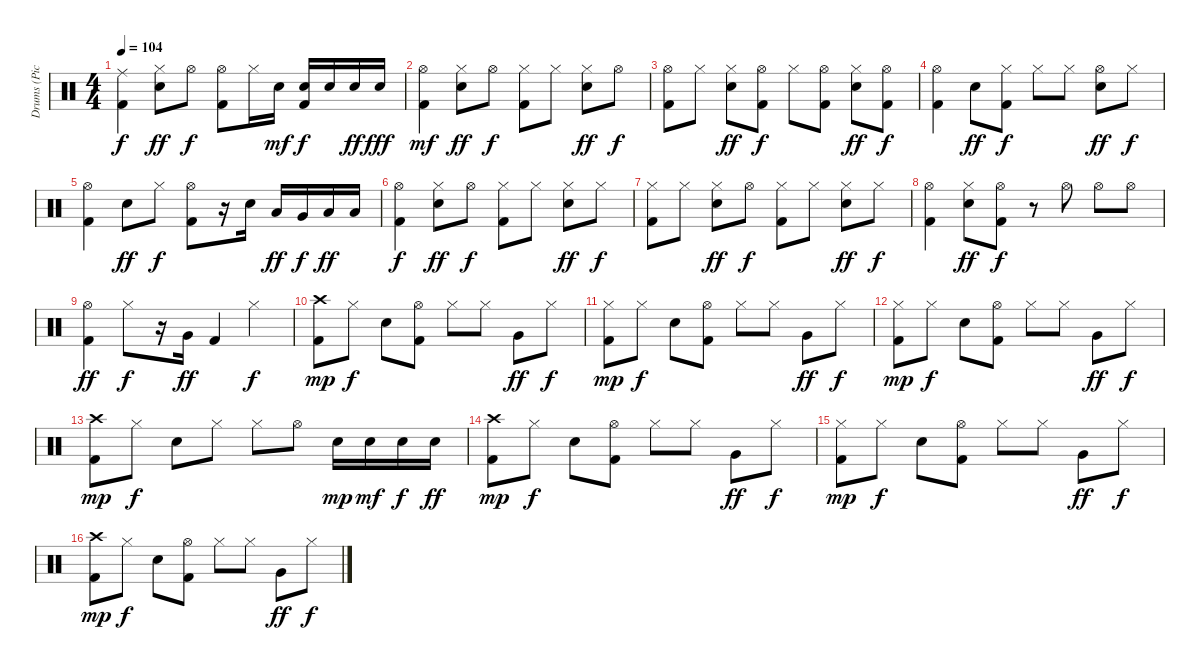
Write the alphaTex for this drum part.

\track ("Drums (Pick Whiters)" "Drums (Pic") {instrument percussion}
\staff {score}
\articulation defaults
\ts (4 4)
\tempo 104
\clef neutral
\ks c
("Kick (hit) 2" "Ride (middle)").4{dy f} ("Snare (hit) 2" "Hi-Hat (closed)").8{dy ff} "Hi-Hat (open)".8{dy f} ("Kick (hit) 2" "Hi-Hat (open)").8 "Hi-Hat (closed)".16 "Snare (hit) 2".16{dy mf} ("Kick (hit) 2" "Snare (hit) 2").16{dy f} "Snare (hit) 2".16 "Snare (hit) 2".16{dy ff} "Snare (hit) 2".16{dy fff} |
("Kick (hit) 2" "Hi-Hat (open)").4{dy mf} ("Snare (hit) 2" "Hi-Hat (closed)").8{dy ff} "Hi-Hat (open)".8{dy f} ("Kick (hit) 2" "Hi-Hat (closed)").8 "Hi-Hat (closed)".8 ("Snare (hit) 2" "Hi-Hat (closed)").8{dy ff} "Hi-Hat (open)".8{dy f} |
("Kick (hit) 2" "Hi-Hat (open)").8 "Hi-Hat (closed)".8 ("Snare (hit) 2" "Hi-Hat (closed)").8{dy ff} ("Hi-Hat (open)" "Kick (hit) 2").8{dy f} "Hi-Hat (closed)".8 ("Hi-Hat (open)" "Kick (hit) 2").8 ("Snare (hit) 2" "Hi-Hat (closed)").8{dy ff} ("Kick (hit) 2" "Hi-Hat (open)").8{dy f} |
("Hi-Hat (open)" "Kick (hit) 2").4 "Snare (hit) 2".8{dy ff} ("Kick (hit) 2" "Hi-Hat (closed)").8{dy f} "Hi-Hat (closed)".8 "Hi-Hat (closed)".8 ("Hi-Hat (open)" "Snare (hit) 2").8{dy ff} "Hi-Hat (closed)".8{dy f} |
("Kick (hit) 2" "Hi-Hat (open)").4 "Snare (hit) 2".8{dy ff} "Hi-Hat (closed)".8{dy f} ("Kick (hit) 2" "Hi-Hat (open)").8 r.16 "Snare (hit) 2".16 "Low Tom (hit)".16{dy ff} "Very Low Tom (hit)".16{dy f} "Low Floor Tom (hit)".16{dy ff} "Low Floor Tom (hit)".16 |
("Hi-Hat (open)" "Kick (hit) 2").4{dy f} ("Hi-Hat (closed)" "Snare (hit) 2").8{dy ff} "Hi-Hat (open)".8{dy f} ("Kick (hit) 2" "Hi-Hat (closed)").8 "Hi-Hat (closed)".8 ("Snare (hit) 2" "Hi-Hat (closed)").8{dy ff} "Hi-Hat (closed)".8{dy f} |
("Kick (hit) 2" "Hi-Hat (closed)").8 "Hi-Hat (closed)".8 ("Snare (hit) 2" "Hi-Hat (closed)").8{dy ff} "Hi-Hat (open)".8{dy f} ("Kick (hit) 2" "Hi-Hat (closed)").8 "Hi-Hat (closed)".8 ("Snare (hit) 2" "Hi-Hat (closed)").8{dy ff} "Hi-Hat (closed)".8{dy f} |
("Kick (hit) 2" "Hi-Hat (open)").4 ("Snare (hit) 2" "Hi-Hat (closed)").8{dy ff} ("Kick (hit) 2" "Hi-Hat (open)").8{dy f} r.8 "Hi-Hat (open)".8 "Hi-Hat (open)".8 "Hi-Hat (open)".8 |
("Kick (hit) 2" "Hi-Hat (open)").4{dy ff} "Hi-Hat (closed)".8{dy f} r.16 "Very Low Tom (hit)".16{dy ff} "Kick (hit) 2".4 "Hi-Hat (closed)".4{dy f} |
("Kick (hit) 2" "Crash high (hit)").8{dy mp} "Hi-Hat (closed)".8{dy f} "Snare (hit) 2".8 ("Kick (hit) 2" "Hi-Hat (open)").8 "Hi-Hat (closed)".8 "Hi-Hat (closed)".8 "Very Low Tom (hit)".8{dy ff} "Hi-Hat (closed)".8{dy f} |
("Kick (hit) 2" "Hi-Hat (closed)").8{dy mp} "Hi-Hat (closed)".8{dy f} "Snare (hit) 2".8 ("Kick (hit) 2" "Hi-Hat (open)").8 "Hi-Hat (closed)".8 "Hi-Hat (closed)".8 "Very Low Tom (hit)".8{dy ff} "Hi-Hat (closed)".8{dy f} |
("Kick (hit) 2" "Hi-Hat (closed)").8{dy mp} "Hi-Hat (closed)".8{dy f} "Snare (hit) 2".8 ("Kick (hit) 2" "Hi-Hat (open)").8 "Hi-Hat (closed)".8 "Hi-Hat (closed)".8 "Very Low Tom (hit)".8{dy ff} "Hi-Hat (closed)".8{dy f} |
("Kick (hit) 2" "Crash high (hit)").8{dy mp} "Hi-Hat (closed)".8{dy f} "Snare (hit) 2".8 "Hi-Hat (closed)".8 "Hi-Hat (closed)".8 "Hi-Hat (open)".8 "Snare (hit) 2".16{dy mp} "Snare (hit) 2".16{dy mf} "Snare (hit) 2".16{dy f} "Snare (hit) 2".16{dy ff} |
("Kick (hit) 2" "Crash high (hit)").8{dy mp} "Hi-Hat (closed)".8{dy f} "Snare (hit) 2".8 ("Kick (hit) 2" "Hi-Hat (open)").8 "Hi-Hat (closed)".8 "Hi-Hat (closed)".8 "Very Low Tom (hit)".8{dy ff} "Hi-Hat (closed)".8{dy f} |
("Kick (hit) 2" "Hi-Hat (closed)").8{dy mp} "Hi-Hat (closed)".8{dy f} "Snare (hit) 2".8 ("Kick (hit) 2" "Hi-Hat (open)").8 "Hi-Hat (closed)".8 "Hi-Hat (closed)".8 "Very Low Tom (hit)".8{dy ff} "Hi-Hat (closed)".8{dy f} |
("Kick (hit) 2" "Crash high (hit)").8{dy mp} "Hi-Hat (closed)".8{dy f} "Snare (hit) 2".8 ("Kick (hit) 2" "Hi-Hat (open)").8 "Hi-Hat (closed)".8 "Hi-Hat (closed)".8 "Very Low Tom (hit)".8{dy ff} "Hi-Hat (closed)".8{dy f}
